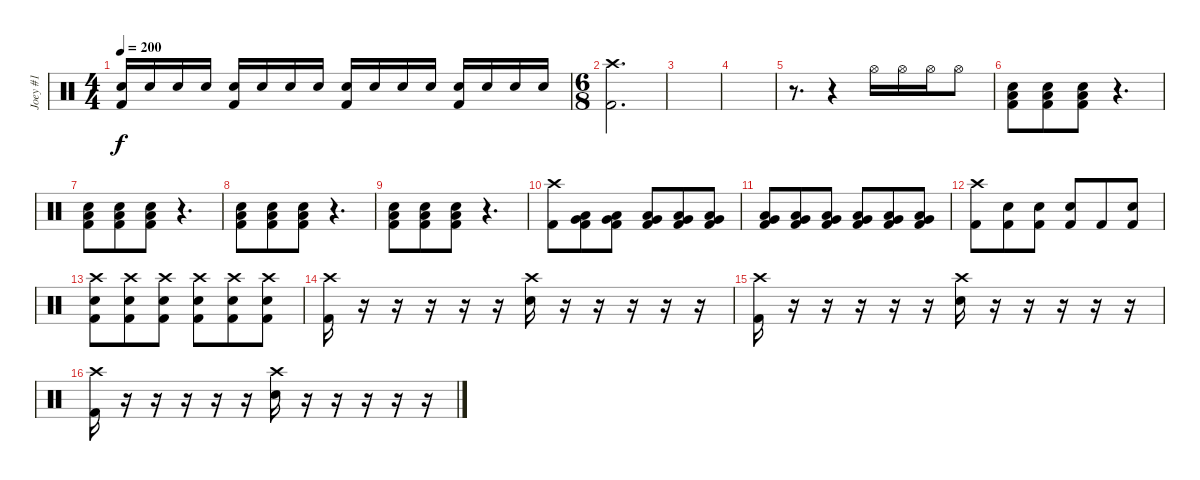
\track ("Joey #1" "Joey #1") {instrument percussion}
\staff {score}
\articulation defaults
\ts (4 4)
\tempo 200
\clef neutral
\ks c
("Electric Snare (hit)" "Kick (hit) 2").16{dy f} "Electric Snare (hit)".16 "Electric Snare (hit)".16 "Electric Snare (hit)".16 ("Electric Snare (hit)" "Kick (hit) 2").16 "Electric Snare (hit)".16 "Electric Snare (hit)".16 "Electric Snare (hit)".16 ("Electric Snare (hit)" "Kick (hit) 2").16 "Electric Snare (hit)".16 "Electric Snare (hit)".16 "Electric Snare (hit)".16 ("Electric Snare (hit)" "Kick (hit) 2").16 "Electric Snare (hit)".16 "Electric Snare (hit)".16 "Electric Snare (hit)".16 |
\ts (6 8)
("Crash high (hit)" "Kick (hit) 2").2{d} |
|
|
r.8{d volume 7} r.4 "Hi-Hat (open)".16{volume 16} "Hi-Hat (open)".16 "Hi-Hat (open)".16 "Hi-Hat (open)".8 |
("Low Tom (hit)" "Electric Snare (hit)" "Kick (hit) 2").8 ("Low Tom (hit)" "Electric Snare (hit)" "Kick (hit) 2").8 ("Low Tom (hit)" "Electric Snare (hit)" "Kick (hit) 2").8 r.4{d} |
("Low Tom (hit)" "Electric Snare (hit)" "Kick (hit) 2").8 ("Low Tom (hit)" "Electric Snare (hit)" "Kick (hit) 2").8 ("Low Tom (hit)" "Electric Snare (hit)" "Kick (hit) 2").8 r.4{d} |
("Low Tom (hit)" "Electric Snare (hit)" "Kick (hit) 2").8 ("Low Tom (hit)" "Electric Snare (hit)" "Kick (hit) 2").8 ("Low Tom (hit)" "Electric Snare (hit)" "Kick (hit) 2").8 r.4{d} |
("Low Tom (hit)" "Electric Snare (hit)" "Kick (hit) 2").8 ("Low Tom (hit)" "Electric Snare (hit)" "Kick (hit) 2").8 ("Low Tom (hit)" "Electric Snare (hit)" "Kick (hit) 2").8 r.4{d} |
("Crash high (hit)" "Kick (hit) 2").8 ("Low Tom (hit)" "Very Low Tom (hit)" "Kick (hit) 2").8 ("Low Tom (hit)" "Very Low Tom (hit)" "Kick (hit) 2").8 ("Low Tom (hit)" "Very Low Tom (hit)" "Kick (hit) 2").8 ("Low Tom (hit)" "Very Low Tom (hit)" "Kick (hit) 2").8 ("Low Tom (hit)" "Very Low Tom (hit)" "Kick (hit) 2").8 |
("Low Tom (hit)" "Very Low Tom (hit)" "Kick (hit) 2").8 ("Low Tom (hit)" "Very Low Tom (hit)" "Kick (hit) 2").8 ("Low Tom (hit)" "Very Low Tom (hit)" "Kick (hit) 2").8 ("Low Tom (hit)" "Very Low Tom (hit)" "Kick (hit) 2").8 ("Low Tom (hit)" "Very Low Tom (hit)" "Kick (hit) 2").8 ("Low Tom (hit)" "Very Low Tom (hit)" "Kick (hit) 2").8 |
("Crash high (hit)" "Kick (hit) 2").8 ("Electric Snare (hit)" "Kick (hit) 2").8 ("Electric Snare (hit)" "Kick (hit) 2").8 ("Electric Snare (hit)" "Kick (hit) 2").8 "Kick (hit) 2".8 ("Electric Snare (hit)" "Kick (hit) 2").8 |
("Crash high (hit)" "Electric Snare (hit)" "Kick (hit) 2").8 ("Crash high (hit)" "Electric Snare (hit)" "Kick (hit) 2").8 ("Crash high (hit)" "Electric Snare (hit)" "Kick (hit) 2").8 ("Crash high (hit)" "Electric Snare (hit)" "Kick (hit) 2").8 ("Crash high (hit)" "Electric Snare (hit)" "Kick (hit) 2").8 ("Crash high (hit)" "Electric Snare (hit)" "Kick (hit) 2").8 |
("Crash high (hit)" "Kick (hit) 2").16 r.16 r.16 r.16 r.16 r.16 ("Crash high (hit)" "Electric Snare (hit)").16 r.16 r.16 r.16 r.16 r.16 |
("Crash high (hit)" "Kick (hit) 2").16 r.16 r.16 r.16 r.16 r.16 ("Crash high (hit)" "Electric Snare (hit)").16 r.16 r.16 r.16 r.16 r.16 |
("Crash high (hit)" "Kick (hit) 2").16 r.16 r.16 r.16 r.16 r.16 ("Crash high (hit)" "Electric Snare (hit)").16 r.16 r.16 r.16 r.16 r.16
